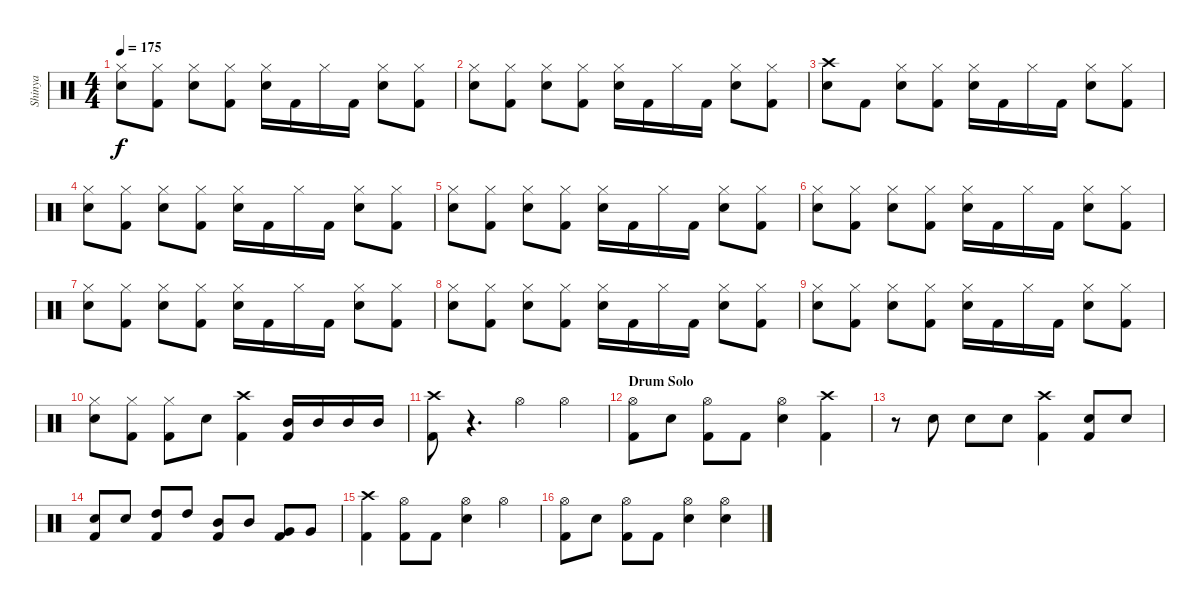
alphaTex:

\track ("Shinya" "Shinya") {instrument percussion}
\staff {score}
\articulation defaults
\ts (4 4)
\tempo 175
\clef neutral
\ks c
("Hi-Hat (closed)" "Snare (hit) 2").8{dy f} ("Hi-Hat (closed)" "Kick (hit) 2").8 ("Hi-Hat (closed)" "Snare (hit) 2").8 ("Hi-Hat (closed)" "Kick (hit) 2").8 ("Hi-Hat (closed)" "Snare (hit) 2").16 "Kick (hit) 2".16 "Hi-Hat (closed)".16 "Kick (hit) 2".16 ("Hi-Hat (closed)" "Snare (hit) 2").8 ("Hi-Hat (closed)" "Kick (hit) 2").8 |
("Hi-Hat (closed)" "Snare (hit) 2").8 ("Hi-Hat (closed)" "Kick (hit) 2").8 ("Hi-Hat (closed)" "Snare (hit) 2").8 ("Hi-Hat (closed)" "Kick (hit) 2").8 ("Hi-Hat (closed)" "Snare (hit) 2").16 "Kick (hit) 2".16 "Hi-Hat (closed)".16 "Kick (hit) 2".16 ("Hi-Hat (closed)" "Snare (hit) 2").8 ("Hi-Hat (closed)" "Kick (hit) 2").8 |
("Crash high (hit)" "Snare (hit) 2").8 "Kick (hit) 2".8 ("Hi-Hat (closed)" "Snare (hit) 2").8 ("Hi-Hat (closed)" "Kick (hit) 2").8 ("Hi-Hat (closed)" "Snare (hit) 2").16 "Kick (hit) 2".16 "Hi-Hat (closed)".16 "Kick (hit) 2".16 ("Hi-Hat (closed)" "Snare (hit) 2").8 ("Hi-Hat (closed)" "Kick (hit) 2").8 |
("Hi-Hat (closed)" "Snare (hit) 2").8 ("Hi-Hat (closed)" "Kick (hit) 2").8 ("Hi-Hat (closed)" "Snare (hit) 2").8 ("Hi-Hat (closed)" "Kick (hit) 2").8 ("Hi-Hat (closed)" "Snare (hit) 2").16 "Kick (hit) 2".16 "Hi-Hat (closed)".16 "Kick (hit) 2".16 ("Hi-Hat (closed)" "Snare (hit) 2").8 ("Hi-Hat (closed)" "Kick (hit) 2").8 |
("Hi-Hat (closed)" "Snare (hit) 2").8 ("Hi-Hat (closed)" "Kick (hit) 2").8 ("Hi-Hat (closed)" "Snare (hit) 2").8 ("Hi-Hat (closed)" "Kick (hit) 2").8 ("Hi-Hat (closed)" "Snare (hit) 2").16 "Kick (hit) 2".16 "Hi-Hat (closed)".16 "Kick (hit) 2".16 ("Hi-Hat (closed)" "Snare (hit) 2").8 ("Hi-Hat (closed)" "Kick (hit) 2").8 |
("Hi-Hat (closed)" "Snare (hit) 2").8 ("Hi-Hat (closed)" "Kick (hit) 2").8 ("Hi-Hat (closed)" "Snare (hit) 2").8 ("Hi-Hat (closed)" "Kick (hit) 2").8 ("Hi-Hat (closed)" "Snare (hit) 2").16 "Kick (hit) 2".16 "Hi-Hat (closed)".16 "Kick (hit) 2".16 ("Hi-Hat (closed)" "Snare (hit) 2").8 ("Hi-Hat (closed)" "Kick (hit) 2").8 |
("Hi-Hat (closed)" "Snare (hit) 2").8 ("Hi-Hat (closed)" "Kick (hit) 2").8 ("Hi-Hat (closed)" "Snare (hit) 2").8 ("Hi-Hat (closed)" "Kick (hit) 2").8 ("Hi-Hat (closed)" "Snare (hit) 2").16 "Kick (hit) 2".16 "Hi-Hat (closed)".16 "Kick (hit) 2".16 ("Hi-Hat (closed)" "Snare (hit) 2").8 ("Hi-Hat (closed)" "Kick (hit) 2").8 |
("Hi-Hat (closed)" "Snare (hit) 2").8 ("Hi-Hat (closed)" "Kick (hit) 2").8 ("Hi-Hat (closed)" "Snare (hit) 2").8 ("Hi-Hat (closed)" "Kick (hit) 2").8 ("Hi-Hat (closed)" "Snare (hit) 2").16 "Kick (hit) 2".16 "Hi-Hat (closed)".16 "Kick (hit) 2".16 ("Hi-Hat (closed)" "Snare (hit) 2").8 ("Hi-Hat (closed)" "Kick (hit) 2").8 |
("Hi-Hat (closed)" "Snare (hit) 2").8 ("Hi-Hat (closed)" "Kick (hit) 2").8 ("Hi-Hat (closed)" "Snare (hit) 2").8 ("Hi-Hat (closed)" "Kick (hit) 2").8 ("Hi-Hat (closed)" "Snare (hit) 2").16 "Kick (hit) 2".16 "Hi-Hat (closed)".16 "Kick (hit) 2".16 ("Hi-Hat (closed)" "Snare (hit) 2").8 ("Hi-Hat (closed)" "Kick (hit) 2").8 |
("Hi-Hat (closed)" "Snare (hit) 2").8 ("Hi-Hat (closed)" "Kick (hit) 2").8 ("Hi-Hat (closed)" "Kick (hit) 2").8 "Snare (hit) 2".8 ("Kick (hit) 2" "Crash high (hit)").4 ("Kick (hit) 2" "Mid Tom (hit)").16 "Mid Tom (hit)".16 "Mid Tom (hit)".16 "Mid Tom (hit)".16 |
("Kick (hit) 2" "Crash high (hit)").8 r.4{d} "Hi-Hat (open)".4 "Hi-Hat (open)".4 |
\section ("" "Drum Solo")
("Kick (hit) 2" "Hi-Hat (open)").8 "Snare (hit) 2".8 ("Hi-Hat (open)" "Kick (hit) 2").8 "Kick (hit) 2".8 ("Hi-Hat (open)" "Snare (hit) 2").4 ("Kick (hit) 2" "Crash high (hit)").4 |
r.8 "Snare (hit) 2".8 "Snare (hit) 2".8 "Snare (hit) 2".8 ("Crash high (hit)" "Kick (hit) 2").4 ("Kick (hit) 2" "Snare (hit) 2").8 "Snare (hit) 2".8 |
("Snare (hit) 2" "Kick (hit) 2").8 "Snare (hit) 2".8 ("High Tom (hit)" "Kick (hit) 2").8 "High Tom (hit)".8 ("Mid Tom (hit)" "Kick (hit) 2").8 "Mid Tom (hit)".8 ("Very Low Tom (hit)" "Kick (hit) 2").8 "Very Low Tom (hit)".8 |
("Crash high (hit)" "Kick (hit) 2").4 ("Hi-Hat (open)" "Kick (hit) 2").8 "Kick (hit) 2".8 ("Hi-Hat (open)" "Snare (hit) 2").4 "Hi-Hat (open)".4 |
("Hi-Hat (open)" "Kick (hit) 2").8 "Snare (hit) 2".8 ("Kick (hit) 2" "Hi-Hat (open)").8 "Kick (hit) 2".8 ("Hi-Hat (open)" "Snare (hit) 2").4 ("Hi-Hat (open)" "Snare (hit) 2").4
